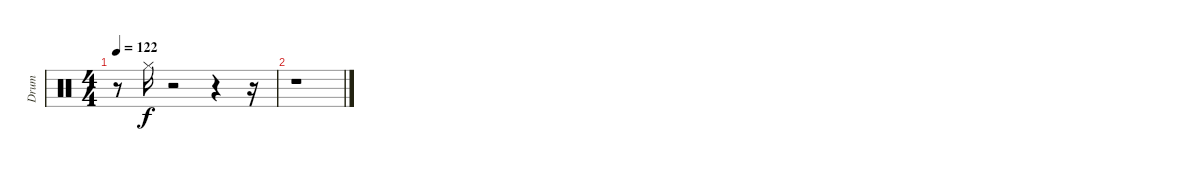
\track ("Drum" "Drum") {instrument percussion}
\staff {score}
\articulation defaults
\ts (4 4)
\tempo 122
\clef neutral
\ks c
r.8{dy f} "Hi-Hat (closed)".16 r.2 r.4 r.16 |
r.1
